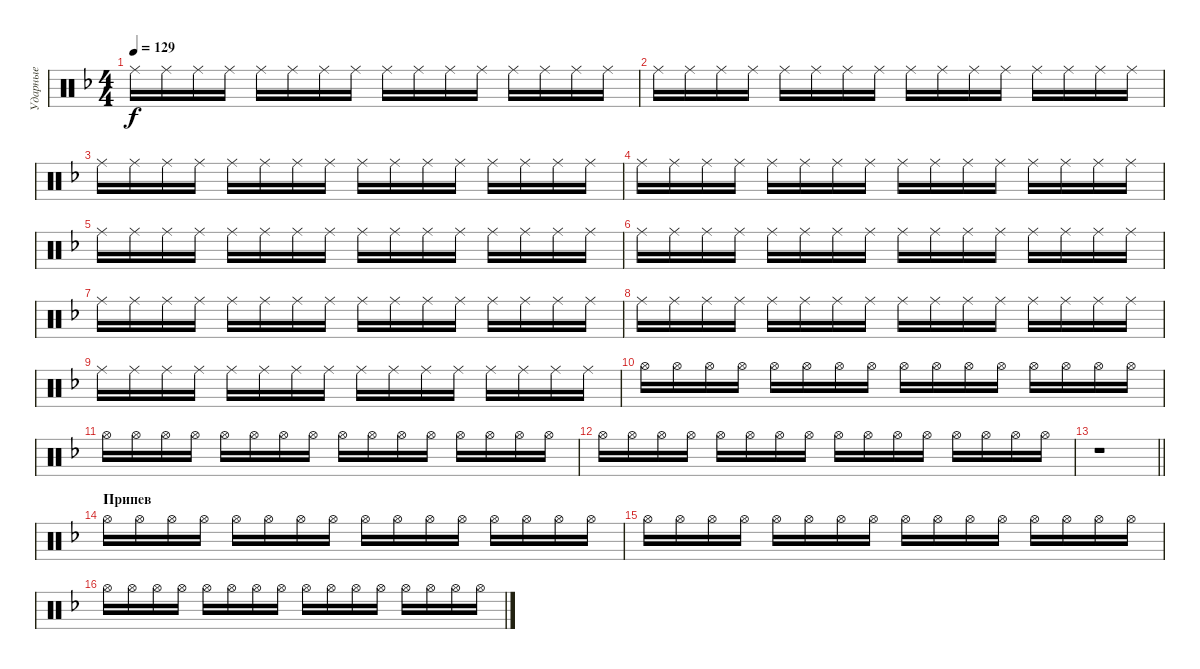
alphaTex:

\track ("Ударные" "Ударные") {instrument percussion}
\staff {score}
\articulation defaults
\ts (4 4)
\tempo 129
\clef neutral
\ks dminor "Ride (middle)".16{dy f} "Ride (middle)".16 "Ride (middle)".16 "Ride (middle)".16 "Ride (middle)".16 "Ride (middle)".16 "Ride (middle)".16 "Ride (middle)".16 "Ride (middle)".16 "Ride (middle)".16 "Ride (middle)".16 "Ride (middle)".16 "Ride (middle)".16 "Ride (middle)".16 "Ride (middle)".16 "Ride (middle)".16
|
"Ride (middle)".16 "Ride (middle)".16 "Ride (middle)".16 "Ride (middle)".16 "Ride (middle)".16 "Ride (middle)".16 "Ride (middle)".16 "Ride (middle)".16 "Ride (middle)".16 "Ride (middle)".16 "Ride (middle)".16 "Ride (middle)".16 "Ride (middle)".16 "Ride (middle)".16 "Ride (middle)".16 "Ride (middle)".16 |
"Ride (middle)".16 "Ride (middle)".16 "Ride (middle)".16 "Ride (middle)".16 "Ride (middle)".16 "Ride (middle)".16 "Ride (middle)".16 "Ride (middle)".16 "Ride (middle)".16 "Ride (middle)".16 "Ride (middle)".16 "Ride (middle)".16 "Ride (middle)".16 "Ride (middle)".16 "Ride (middle)".16 "Ride (middle)".16 |
"Ride (middle)".16 "Ride (middle)".16 "Ride (middle)".16 "Ride (middle)".16 "Ride (middle)".16 "Ride (middle)".16 "Ride (middle)".16 "Ride (middle)".16 "Ride (middle)".16 "Ride (middle)".16 "Ride (middle)".16 "Ride (middle)".16 "Ride (middle)".16 "Ride (middle)".16 "Ride (middle)".16 "Ride (middle)".16 |
"Ride (middle)".16 "Ride (middle)".16 "Ride (middle)".16 "Ride (middle)".16 "Ride (middle)".16 "Ride (middle)".16 "Ride (middle)".16 "Ride (middle)".16 "Ride (middle)".16 "Ride (middle)".16 "Ride (middle)".16 "Ride (middle)".16 "Ride (middle)".16 "Ride (middle)".16 "Ride (middle)".16 "Ride (middle)".16 |
"Ride (middle)".16 "Ride (middle)".16 "Ride (middle)".16 "Ride (middle)".16 "Ride (middle)".16 "Ride (middle)".16 "Ride (middle)".16 "Ride (middle)".16 "Ride (middle)".16 "Ride (middle)".16 "Ride (middle)".16 "Ride (middle)".16 "Ride (middle)".16 "Ride (middle)".16 "Ride (middle)".16 "Ride (middle)".16 |
"Ride (middle)".16 "Ride (middle)".16 "Ride (middle)".16 "Ride (middle)".16 "Ride (middle)".16 "Ride (middle)".16 "Ride (middle)".16 "Ride (middle)".16 "Ride (middle)".16 "Ride (middle)".16 "Ride (middle)".16 "Ride (middle)".16 "Ride (middle)".16 "Ride (middle)".16 "Ride (middle)".16 "Ride (middle)".16 |
"Ride (middle)".16 "Ride (middle)".16 "Ride (middle)".16 "Ride (middle)".16 "Ride (middle)".16 "Ride (middle)".16 "Ride (middle)".16 "Ride (middle)".16 "Ride (middle)".16 "Ride (middle)".16 "Ride (middle)".16 "Ride (middle)".16 "Ride (middle)".16 "Ride (middle)".16 "Ride (middle)".16 "Ride (middle)".16 |
"Ride (middle)".16 "Ride (middle)".16 "Ride (middle)".16 "Ride (middle)".16 "Ride (middle)".16 "Ride (middle)".16 "Ride (middle)".16 "Ride (middle)".16 "Ride (middle)".16 "Ride (middle)".16 "Ride (middle)".16 "Ride (middle)".16 "Ride (middle)".16 "Ride (middle)".16 "Ride (middle)".16 "Ride (middle)".16 |
"Hi-Hat (open)".16 "Hi-Hat (open)".16 "Hi-Hat (open)".16 "Hi-Hat (open)".16 "Hi-Hat (open)".16 "Hi-Hat (open)".16 "Hi-Hat (open)".16 "Hi-Hat (open)".16 "Hi-Hat (open)".16 "Hi-Hat (open)".16 "Hi-Hat (open)".16 "Hi-Hat (open)".16 "Hi-Hat (open)".16 "Hi-Hat (open)".16 "Hi-Hat (open)".16 "Hi-Hat (open)".16 |
"Hi-Hat (open)".16 "Hi-Hat (open)".16 "Hi-Hat (open)".16 "Hi-Hat (open)".16 "Hi-Hat (open)".16 "Hi-Hat (open)".16 "Hi-Hat (open)".16 "Hi-Hat (open)".16 "Hi-Hat (open)".16 "Hi-Hat (open)".16 "Hi-Hat (open)".16 "Hi-Hat (open)".16 "Hi-Hat (open)".16 "Hi-Hat (open)".16 "Hi-Hat (open)".16 "Hi-Hat (open)".16 |
"Hi-Hat (open)".16 "Hi-Hat (open)".16 "Hi-Hat (open)".16 "Hi-Hat (open)".16 "Hi-Hat (open)".16 "Hi-Hat (open)".16 "Hi-Hat (open)".16 "Hi-Hat (open)".16 "Hi-Hat (open)".16 "Hi-Hat (open)".16 "Hi-Hat (open)".16 "Hi-Hat (open)".16 "Hi-Hat (open)".16 "Hi-Hat (open)".16 "Hi-Hat (open)".16 "Hi-Hat (open)".16 |
\barLineRight lightlight
r.1 |
\section ("" "Припев")
"Hi-Hat (open)".16 "Hi-Hat (open)".16 "Hi-Hat (open)".16 "Hi-Hat (open)".16 "Hi-Hat (open)".16 "Hi-Hat (open)".16 "Hi-Hat (open)".16 "Hi-Hat (open)".16 "Hi-Hat (open)".16 "Hi-Hat (open)".16 "Hi-Hat (open)".16 "Hi-Hat (open)".16 "Hi-Hat (open)".16 "Hi-Hat (open)".16 "Hi-Hat (open)".16 "Hi-Hat (open)".16 |
"Hi-Hat (open)".16 "Hi-Hat (open)".16 "Hi-Hat (open)".16 "Hi-Hat (open)".16 "Hi-Hat (open)".16 "Hi-Hat (open)".16 "Hi-Hat (open)".16 "Hi-Hat (open)".16 "Hi-Hat (open)".16 "Hi-Hat (open)".16 "Hi-Hat (open)".16 "Hi-Hat (open)".16 "Hi-Hat (open)".16 "Hi-Hat (open)".16 "Hi-Hat (open)".16 "Hi-Hat (open)".16 |
"Hi-Hat (open)".16 "Hi-Hat (open)".16 "Hi-Hat (open)".16 "Hi-Hat (open)".16 "Hi-Hat (open)".16 "Hi-Hat (open)".16 "Hi-Hat (open)".16 "Hi-Hat (open)".16 "Hi-Hat (open)".16 "Hi-Hat (open)".16 "Hi-Hat (open)".16 "Hi-Hat (open)".16 "Hi-Hat (open)".16 "Hi-Hat (open)".16 "Hi-Hat (open)".16 "Hi-Hat (open)".16
